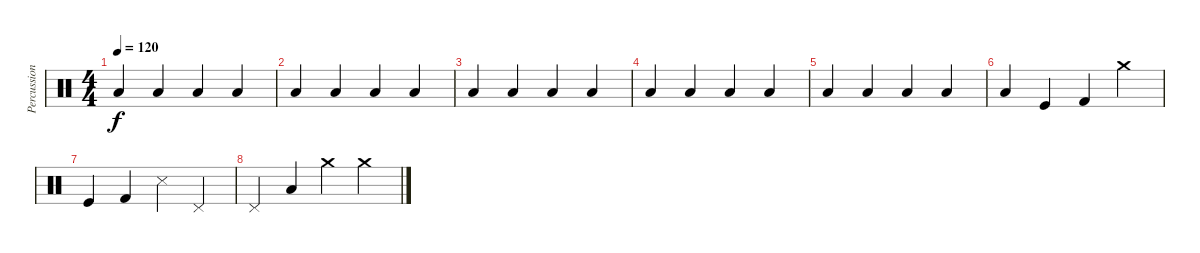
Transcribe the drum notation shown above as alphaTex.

\track ("Percussions" "Percussion") {instrument percussion}
\staff {score}
\articulation defaults
\ts (4 4)
\tempo 120
\clef neutral
\ks c "Low Tom (hit)".4{dy f} "Low Tom (hit)".4 "Low Tom (hit)".4 "Low Tom (hit)".4
|
"Low Tom (hit)".4 "Low Tom (hit)".4 "Low Tom (hit)".4 "Low Tom (hit)".4 |
"Low Tom (hit)".4 "Low Tom (hit)".4 "Low Tom (hit)".4 "Low Tom (hit)".4 |
"Low Tom (hit)".4 "Low Tom (hit)".4 "Low Tom (hit)".4 "Low Tom (hit)".4 |
"Low Tom (hit)".4 "Low Tom (hit)".4 "Low Tom (hit)".4 "Low Tom (hit)".4 |
"Low Tom (hit)".4 "Kick (hit)".4 "Kick (hit) 2".4 "Crash medium (hit)".4 |
"Kick (hit)".4 "Kick (hit) 2".4 "Snare (side stick) 3".4 "Pedal Hi-Hat (hit)".4 |
"Pedal Hi-Hat (hit)".4 "Low Tom (hit)".4 "Crash medium (hit)".4 "Crash medium (hit)".4
